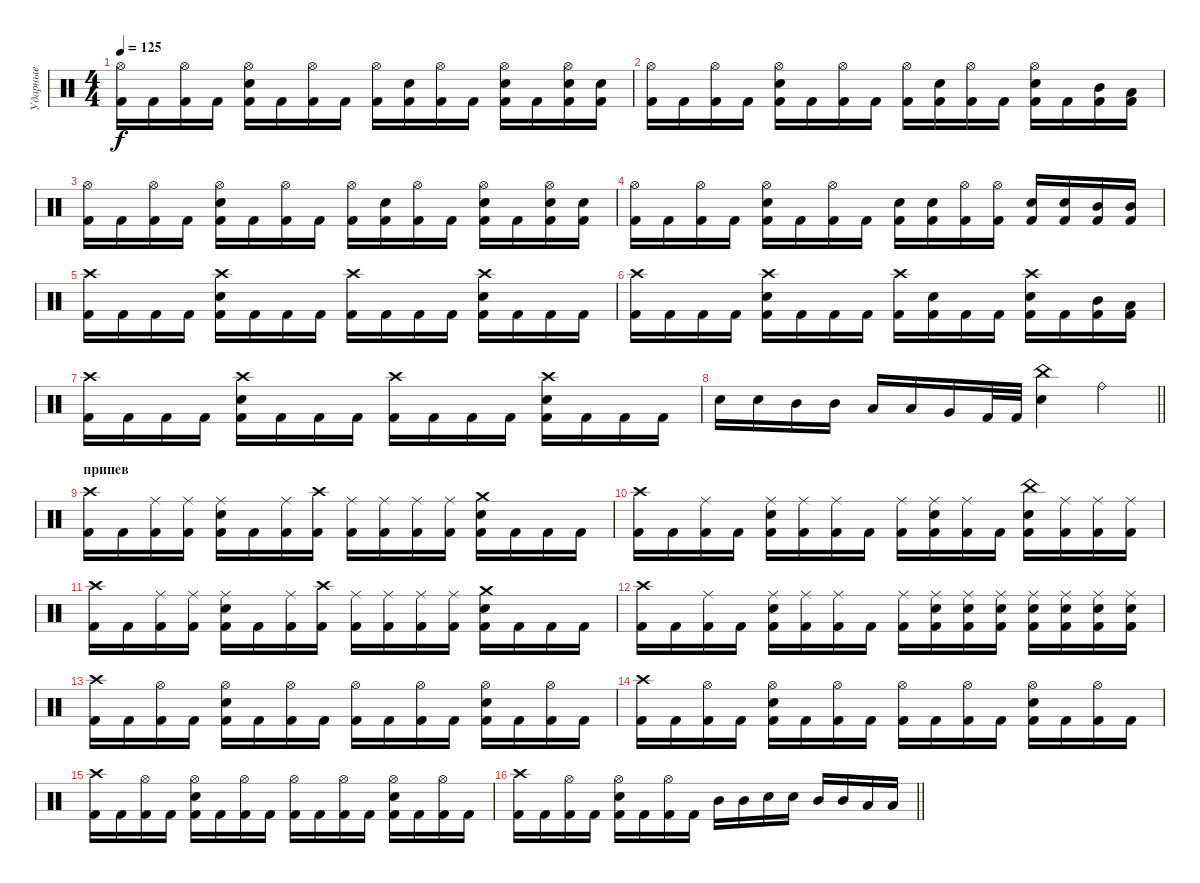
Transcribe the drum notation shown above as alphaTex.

\track ("Ударные" "Ударные") {instrument percussion}
\staff {score}
\articulation defaults
\ts (4 4)
\tempo 125
\clef neutral
\ks c
("Hi-Hat (open)" "Kick (hit) 2").16{dy f} "Kick (hit) 2".16 ("Hi-Hat (open)" "Kick (hit) 2").16 "Kick (hit) 2".16 ("Hi-Hat (open)" "Electric Snare (hit)" "Kick (hit) 2").16 "Kick (hit) 2".16 ("Hi-Hat (open)" "Kick (hit) 2").16 "Kick (hit) 2".16 ("Hi-Hat (open)" "Kick (hit) 2").16 ("Electric Snare (hit)" "Kick (hit) 2").16 ("Hi-Hat (open)" "Kick (hit) 2").16 "Kick (hit) 2".16 ("Hi-Hat (open)" "Electric Snare (hit)" "Kick (hit) 2").16 "Kick (hit) 2".16 ("Hi-Hat (open)" "Electric Snare (hit)" "Kick (hit) 2").16 ("Electric Snare (hit)" "Kick (hit) 2").16 |
("Hi-Hat (open)" "Kick (hit) 2").16 "Kick (hit) 2".16 ("Hi-Hat (open)" "Kick (hit) 2").16 "Kick (hit) 2".16 ("Hi-Hat (open)" "Electric Snare (hit)" "Kick (hit) 2").16 "Kick (hit) 2".16 ("Hi-Hat (open)" "Kick (hit) 2").16 "Kick (hit) 2".16 ("Hi-Hat (open)" "Kick (hit) 2").16 ("Electric Snare (hit)" "Kick (hit) 2").16 ("Hi-Hat (open)" "Kick (hit) 2").16 "Kick (hit) 2".16 ("Hi-Hat (open)" "Electric Snare (hit)" "Kick (hit) 2").16 "Kick (hit) 2".16 ("Mid Tom (hit)" "Kick (hit) 2").16 ("Low Tom (hit)" "Kick (hit) 2").16 |
("Hi-Hat (open)" "Kick (hit) 2").16 "Kick (hit) 2".16 ("Hi-Hat (open)" "Kick (hit) 2").16 "Kick (hit) 2".16 ("Hi-Hat (open)" "Electric Snare (hit)" "Kick (hit) 2").16 "Kick (hit) 2".16 ("Hi-Hat (open)" "Kick (hit) 2").16 "Kick (hit) 2".16 ("Hi-Hat (open)" "Kick (hit) 2").16 ("Electric Snare (hit)" "Kick (hit) 2").16 ("Hi-Hat (open)" "Kick (hit) 2").16 "Kick (hit) 2".16 ("Hi-Hat (open)" "Electric Snare (hit)" "Kick (hit) 2").16 "Kick (hit) 2".16 ("Hi-Hat (open)" "Electric Snare (hit)" "Kick (hit) 2").16 ("Electric Snare (hit)" "Kick (hit) 2").16 |
("Hi-Hat (open)" "Kick (hit) 2").16 "Kick (hit) 2".16 ("Hi-Hat (open)" "Kick (hit) 2").16 "Kick (hit) 2".16 ("Hi-Hat (open)" "Electric Snare (hit)" "Kick (hit) 2").16 "Kick (hit) 2".16 ("Hi-Hat (open)" "Kick (hit) 2").16 "Kick (hit) 2".16 ("Electric Snare (hit)" "Kick (hit) 2").16 ("Electric Snare (hit)" "Kick (hit) 2").16 ("Hi-Hat (open)" "Kick (hit) 2").16 ("Hi-Hat (open)" "Kick (hit) 2").16 ("Electric Snare (hit)" "Kick (hit) 2").16 ("Electric Snare (hit)" "Kick (hit) 2").16 ("Mid Tom (hit)" "Kick (hit) 2").16 ("Mid Tom (hit)" "Kick (hit) 2").16 |
("Crash high (hit)" "Kick (hit) 2").16 "Kick (hit) 2".16 "Kick (hit) 2".16 "Kick (hit) 2".16 ("Crash high (hit)" "Electric Snare (hit)" "Kick (hit) 2").16 "Kick (hit) 2".16 "Kick (hit) 2".16 "Kick (hit) 2".16 ("Crash high (hit)" "Kick (hit) 2").16 "Kick (hit) 2".16 "Kick (hit) 2".16 "Kick (hit) 2".16 ("Crash high (hit)" "Electric Snare (hit)" "Kick (hit) 2").16 "Kick (hit) 2".16 "Kick (hit) 2".16 "Kick (hit) 2".16 |
("Crash high (hit)" "Kick (hit) 2").16 "Kick (hit) 2".16 "Kick (hit) 2".16 "Kick (hit) 2".16 ("Crash high (hit)" "Electric Snare (hit)" "Kick (hit) 2").16 "Kick (hit) 2".16 "Kick (hit) 2".16 "Kick (hit) 2".16 ("Crash high (hit)" "Kick (hit) 2").16 ("Electric Snare (hit)" "Kick (hit) 2").16 "Kick (hit) 2".16 "Kick (hit) 2".16 ("Crash high (hit)" "Electric Snare (hit)" "Kick (hit) 2").16 "Kick (hit) 2".16 ("Mid Tom (hit)" "Kick (hit) 2").16 ("Low Tom (hit)" "Kick (hit) 2").16 |
("Crash high (hit)" "Kick (hit) 2").16 "Kick (hit) 2".16 "Kick (hit) 2".16 "Kick (hit) 2".16 ("Crash high (hit)" "Electric Snare (hit)" "Kick (hit) 2").16 "Kick (hit) 2".16 "Kick (hit) 2".16 "Kick (hit) 2".16 ("Crash high (hit)" "Kick (hit) 2").16 "Kick (hit) 2".16 "Kick (hit) 2".16 "Kick (hit) 2".16 ("Crash high (hit)" "Electric Snare (hit)" "Kick (hit) 2").16 "Kick (hit) 2".16 "Kick (hit) 2".16 "Kick (hit) 2".16 |
\barLineRight lightlight "Electric Snare (hit)".16 "Electric Snare (hit)".16 "Mid Tom (hit)".16 "Mid Tom (hit)".16 "Low Tom (hit)".16 "Low Tom (hit)".16 "Very Low Tom (hit)".16 "Kick (hit) 2".32 "Kick (hit) 2".32
("China (hit)" "Electric Snare (hit)").4 "Ride (bell)".4 |
\section ("" "припев")
("Crash high (hit)" "Kick (hit) 2").16 "Kick (hit) 2".16 ("Ride (middle)" "Kick (hit) 2").16 ("Ride (middle)" "Kick (hit) 2").16 ("Ride (middle)" "Electric Snare (hit)" "Kick (hit) 2").16 "Kick (hit) 2".16 ("Ride (middle)" "Kick (hit) 2").16 ("Crash high (hit)" "Kick (hit) 2").16 ("Ride (middle)" "Kick (hit) 2").16 ("Ride (middle)" "Kick (hit) 2").16 ("Ride (middle)" "Kick (hit) 2").16 ("Ride (middle)" "Kick (hit) 2").16 ("Crash medium (hit)" "Electric Snare (hit)" "Kick (hit) 2").16 "Kick (hit) 2".16 "Kick (hit) 2".16 "Kick (hit) 2".16 |
("Crash high (hit)" "Kick (hit) 2").16 "Kick (hit) 2".16 ("Ride (middle)" "Kick (hit) 2").16 "Kick (hit) 2".16 ("Ride (middle)" "Electric Snare (hit)" "Kick (hit) 2").16 ("Ride (middle)" "Kick (hit) 2").16 ("Ride (middle)" "Kick (hit) 2").16 "Kick (hit) 2".16 ("Ride (middle)" "Kick (hit) 2").16 ("Ride (middle)" "Electric Snare (hit)" "Kick (hit) 2").16 ("Ride (middle)" "Kick (hit) 2").16 "Kick (hit) 2".16 ("China (hit)" "Electric Snare (hit)" "Kick (hit) 2").16 ("Ride (middle)" "Kick (hit) 2").16 ("Ride (middle)" "Kick (hit) 2").16 ("Ride (middle)" "Kick (hit) 2").16 |
("Crash high (hit)" "Kick (hit) 2").16 "Kick (hit) 2".16 ("Ride (middle)" "Kick (hit) 2").16 ("Ride (middle)" "Kick (hit) 2").16 ("Ride (middle)" "Electric Snare (hit)" "Kick (hit) 2").16 "Kick (hit) 2".16 ("Ride (middle)" "Kick (hit) 2").16 ("Crash high (hit)" "Kick (hit) 2").16 ("Ride (middle)" "Kick (hit) 2").16 ("Ride (middle)" "Kick (hit) 2").16 ("Ride (middle)" "Kick (hit) 2").16 ("Ride (middle)" "Kick (hit) 2").16 ("Crash medium (hit)" "Electric Snare (hit)" "Kick (hit) 2").16 "Kick (hit) 2".16 "Kick (hit) 2".16 "Kick (hit) 2".16 |
("Crash high (hit)" "Kick (hit) 2").16 "Kick (hit) 2".16 ("Ride (middle)" "Kick (hit) 2").16 "Kick (hit) 2".16 ("Ride (middle)" "Electric Snare (hit)" "Kick (hit) 2").16 ("Ride (middle)" "Kick (hit) 2").16 ("Ride (middle)" "Kick (hit) 2").16 "Kick (hit) 2".16 ("Ride (middle)" "Kick (hit) 2").16 ("Ride (middle)" "Electric Snare (hit)" "Kick (hit) 2").16 ("Ride (middle)" "Electric Snare (hit)" "Kick (hit) 2").16 ("Ride (middle)" "Electric Snare (hit)" "Kick (hit) 2").16 ("Ride (middle)" "Electric Snare (hit)" "Kick (hit) 2").16 ("Ride (middle)" "Electric Snare (hit)" "Kick (hit) 2").16 ("Ride (middle)" "Electric Snare (hit)" "Kick (hit) 2").16 ("Ride (middle)" "Electric Snare (hit)" "Kick (hit) 2").16 |
("Crash high (hit)" "Kick (hit) 2").16 "Kick (hit) 2".16 ("Hi-Hat (open)" "Kick (hit) 2").16 "Kick (hit) 2".16 ("Hi-Hat (open)" "Electric Snare (hit)" "Kick (hit) 2").16 "Kick (hit) 2".16 ("Hi-Hat (open)" "Kick (hit) 2").16 "Kick (hit) 2".16 ("Hi-Hat (open)" "Kick (hit) 2").16 "Kick (hit) 2".16 ("Hi-Hat (open)" "Kick (hit) 2").16 "Kick (hit) 2".16 ("Hi-Hat (open)" "Electric Snare (hit)" "Kick (hit) 2").16 "Kick (hit) 2".16 ("Hi-Hat (open)" "Kick (hit) 2").16 "Kick (hit) 2".16 |
("Crash high (hit)" "Kick (hit) 2").16 "Kick (hit) 2".16 ("Hi-Hat (open)" "Kick (hit) 2").16 "Kick (hit) 2".16 ("Hi-Hat (open)" "Electric Snare (hit)" "Kick (hit) 2").16 "Kick (hit) 2".16 ("Hi-Hat (open)" "Kick (hit) 2").16 "Kick (hit) 2".16 ("Hi-Hat (open)" "Kick (hit) 2").16 "Kick (hit) 2".16 ("Hi-Hat (open)" "Kick (hit) 2").16 "Kick (hit) 2".16 ("Hi-Hat (open)" "Electric Snare (hit)" "Kick (hit) 2").16 "Kick (hit) 2".16 ("Hi-Hat (open)" "Kick (hit) 2").16 "Kick (hit) 2".16 |
("Crash high (hit)" "Kick (hit) 2").16 "Kick (hit) 2".16 ("Hi-Hat (open)" "Kick (hit) 2").16 "Kick (hit) 2".16 ("Hi-Hat (open)" "Electric Snare (hit)" "Kick (hit) 2").16 "Kick (hit) 2".16 ("Hi-Hat (open)" "Kick (hit) 2").16 "Kick (hit) 2".16 ("Hi-Hat (open)" "Kick (hit) 2").16 "Kick (hit) 2".16 ("Hi-Hat (open)" "Kick (hit) 2").16 "Kick (hit) 2".16 ("Hi-Hat (open)" "Electric Snare (hit)" "Kick (hit) 2").16 "Kick (hit) 2".16 ("Hi-Hat (open)" "Kick (hit) 2").16 "Kick (hit) 2".16 |
\barLineRight lightlight
("Crash high (hit)" "Kick (hit) 2").16 "Kick (hit) 2".16 ("Hi-Hat (open)" "Kick (hit) 2").16 "Kick (hit) 2".16 ("Hi-Hat (open)" "Electric Snare (hit)" "Kick (hit) 2").16 "Kick (hit) 2".16 ("Hi-Hat (open)" "Kick (hit) 2").16 "Kick (hit) 2".16 "Mid Tom (hit)".16 "Mid Tom (hit)".16 "Electric Snare (hit)".16 "Electric Snare (hit)".16 "Mid Tom (hit)".16 "Mid Tom (hit)".16 "Low Tom (hit)".16 "Low Tom (hit)".16
